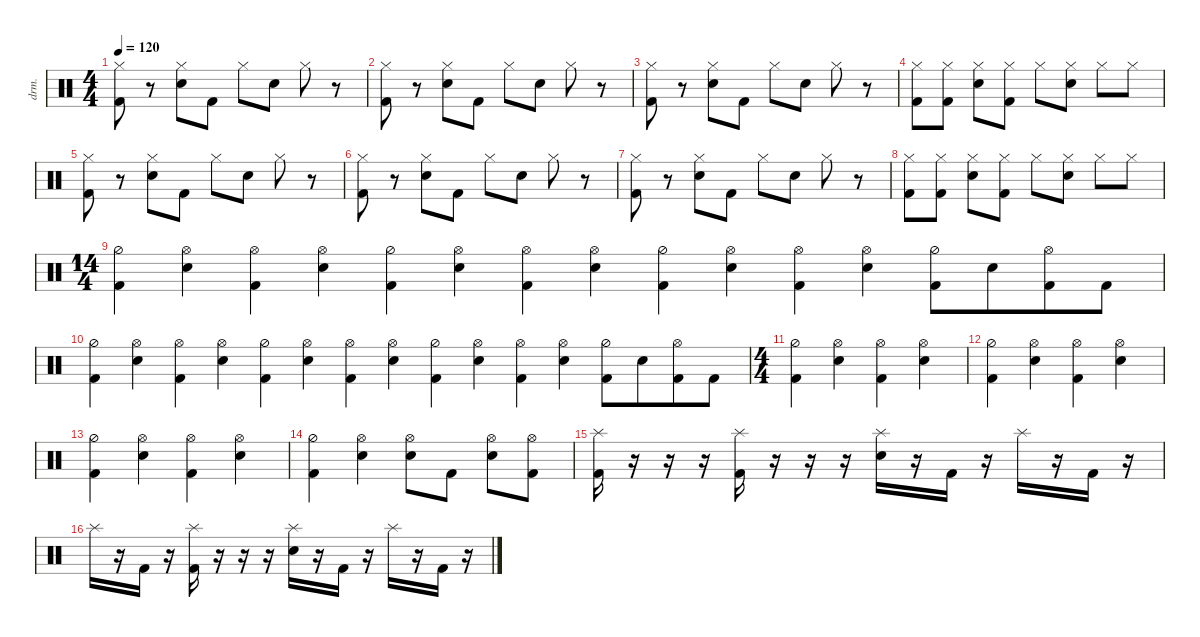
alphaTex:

\defaultSystemsLayout 4
\hideDynamics
\bracketExtendMode nobrackets
\otherSystemsTrackNameOrientation horizontal
\track ("Drumkit" "drm.") {instrument percussion}
\staff {score}
\articulation defaults
\ts (4 4)
\tempo 120
\clef neutral
\ks c
("Kick (hit) 2" "Hi-Hat (closed)").8{dy mf beam Down} r.8{beam Down} ("Hi-Hat (closed)" "Snare (hit) 2").8{beam Down} "Kick (hit) 2".8{beam Down} "Hi-Hat (closed)".8{beam Down} "Snare (hit) 2".8{beam Down} "Hi-Hat (closed)".8{beam Down} r.8{beam Down} |
("Kick (hit) 2" "Hi-Hat (closed)").8{beam Down} r.8{beam Down} ("Hi-Hat (closed)" "Snare (hit) 2").8{beam Down} "Kick (hit) 2".8{beam Down} "Hi-Hat (closed)".8{beam Down} "Snare (hit) 2".8{beam Down} "Hi-Hat (closed)".8{beam Down} r.8{beam Down} |
("Kick (hit) 2" "Hi-Hat (closed)").8{beam Down} r.8{beam Down} ("Hi-Hat (closed)" "Snare (hit) 2").8{beam Down} "Kick (hit) 2".8{beam Down} "Hi-Hat (closed)".8{beam Down} "Snare (hit) 2".8{beam Down} "Hi-Hat (closed)".8{beam Down} r.8{beam Down} |
("Hi-Hat (closed)" "Kick (hit) 2").8{beam Down} ("Hi-Hat (closed)" "Kick (hit) 2").8{beam Down} ("Hi-Hat (closed)" "Snare (hit) 2").8{beam Down} ("Hi-Hat (closed)" "Kick (hit) 2").8{beam Down} "Hi-Hat (closed)".8{beam Down} ("Hi-Hat (closed)" "Snare (hit) 2").8{beam Down} "Hi-Hat (closed)".8{beam Down} "Hi-Hat (closed)".8{beam Down} |
("Kick (hit) 2" "Hi-Hat (closed)").8{beam Down} r.8{beam Down} ("Hi-Hat (closed)" "Snare (hit) 2").8{beam Down} "Kick (hit) 2".8{beam Down} "Hi-Hat (closed)".8{beam Down} "Snare (hit) 2".8{beam Down} "Hi-Hat (closed)".8{beam Down} r.8{beam Down} |
("Kick (hit) 2" "Hi-Hat (closed)").8{beam Down} r.8{beam Down} ("Hi-Hat (closed)" "Snare (hit) 2").8{beam Down} "Kick (hit) 2".8{beam Down} "Hi-Hat (closed)".8{beam Down} "Snare (hit) 2".8{beam Down} "Hi-Hat (closed)".8{beam Down} r.8{beam Down} |
("Kick (hit) 2" "Hi-Hat (closed)").8{beam Down} r.8{beam Down} ("Hi-Hat (closed)" "Snare (hit) 2").8{beam Down} "Kick (hit) 2".8{beam Down} "Hi-Hat (closed)".8{beam Down} "Snare (hit) 2".8{beam Down} "Hi-Hat (closed)".8{beam Down} r.8{beam Down} |
("Hi-Hat (closed)" "Kick (hit) 2").8{beam Down} ("Hi-Hat (closed)" "Kick (hit) 2").8{beam Down} ("Hi-Hat (closed)" "Snare (hit) 2").8{beam Down} ("Hi-Hat (closed)" "Kick (hit) 2").8{beam Down} "Hi-Hat (closed)".8{beam Down} ("Hi-Hat (closed)" "Snare (hit) 2").8{beam Down} "Hi-Hat (closed)".8{beam Down} "Hi-Hat (closed)".8{beam Down} |
\ts (14 4)
\beaming (8 4 4 4 4 4 4 4)
("Kick (hit) 2" "Hi-Hat (half)").4{beam Down} ("Snare (hit) 2" "Hi-Hat (open)").4{beam Down} ("Kick (hit) 2" "Hi-Hat (open)").4{beam Down} ("Snare (hit) 2" "Hi-Hat (open)").4{beam Down} ("Kick (hit) 2" "Hi-Hat (half)").4{beam Down} ("Snare (hit) 2" "Hi-Hat (open)").4{beam Down} ("Kick (hit) 2" "Hi-Hat (open)").4{beam Down} ("Snare (hit) 2" "Hi-Hat (open)").4{beam Down} ("Kick (hit) 2" "Hi-Hat (half)").4{beam Down} ("Snare (hit) 2" "Hi-Hat (open)").4{beam Down} ("Kick (hit) 2" "Hi-Hat (open)").4{beam Down} ("Snare (hit) 2" "Hi-Hat (open)").4{beam Down} ("Kick (hit) 2" "Hi-Hat (half)").8{beam Down} "Snare (hit) 2".8{beam Down} ("Kick (hit) 2" "Hi-Hat (open)").8{beam Down} "Kick (hit) 2".8{beam Down} |
("Kick (hit) 2" "Hi-Hat (half)").4{beam Down} ("Snare (hit) 2" "Hi-Hat (open)").4{beam Down} ("Kick (hit) 2" "Hi-Hat (open)").4{beam Down} ("Snare (hit) 2" "Hi-Hat (open)").4{beam Down} ("Kick (hit) 2" "Hi-Hat (half)").4{beam Down} ("Snare (hit) 2" "Hi-Hat (open)").4{beam Down} ("Kick (hit) 2" "Hi-Hat (open)").4{beam Down} ("Snare (hit) 2" "Hi-Hat (open)").4{beam Down} ("Kick (hit) 2" "Hi-Hat (half)").4{beam Down} ("Snare (hit) 2" "Hi-Hat (open)").4{beam Down} ("Kick (hit) 2" "Hi-Hat (open)").4{beam Down} ("Snare (hit) 2" "Hi-Hat (open)").4{beam Down} ("Kick (hit) 2" "Hi-Hat (half)").8{beam Down} "Snare (hit) 2".8{beam Down} ("Kick (hit) 2" "Hi-Hat (open)").8{beam Down} "Kick (hit) 2".8{beam Down} |
\ts (4 4)
\beaming (8 2 2 2 2)
("Kick (hit) 2" "Hi-Hat (half)").4{beam Down} ("Snare (hit) 2" "Hi-Hat (open)").4{beam Down} ("Kick (hit) 2" "Hi-Hat (open)").4{beam Down} ("Snare (hit) 2" "Hi-Hat (open)").4{beam Down} |
("Kick (hit) 2" "Hi-Hat (half)").4{beam Down} ("Snare (hit) 2" "Hi-Hat (open)").4{beam Down} ("Kick (hit) 2" "Hi-Hat (open)").4{beam Down} ("Snare (hit) 2" "Hi-Hat (open)").4{beam Down} |
("Kick (hit) 2" "Hi-Hat (half)").4{beam Down} ("Snare (hit) 2" "Hi-Hat (open)").4{beam Down} ("Kick (hit) 2" "Hi-Hat (open)").4{beam Down} ("Snare (hit) 2" "Hi-Hat (open)").4{beam Down} |
("Hi-Hat (half)" "Kick (hit) 2").4{beam Down} ("Hi-Hat (open)" "Snare (hit) 2").4{beam Down} ("Hi-Hat (open)" "Snare (hit) 2").8{beam Down} "Kick (hit) 2".8{beam Down} ("Snare (hit) 2" "Hi-Hat (open)").8{beam Down} ("Hi-Hat (open)" "Kick (hit) 2").8{beam Down} |
("Kick (hit) 2" "Splash (hit)").16{beam Down} r.16{beam Down} r.16{beam Down} r.16{beam Down} ("Kick (hit) 2" "Splash (hit)").16{beam Down} r.16{beam Down} r.16{beam Down} r.16{beam Down} ("Snare (hit) 2" "Splash (hit)").16{beam Down} r.16{beam Down} "Kick (hit) 2".16{beam Down} r.16{beam Down} "Splash (hit)".16{beam Down} r.16{beam Down} "Kick (hit) 2".16{beam Down} r.16{beam Down} |
"Splash (hit)".16{beam Down} r.16{beam Down} "Kick (hit) 2".16{beam Down} r.16{beam Down} ("Kick (hit) 2" "Splash (hit)").16{beam Down} r.16{beam Down} r.16{beam Down} r.16{beam Down} ("Snare (hit) 2" "Splash (hit)").16{beam Down} r.16{beam Down} "Kick (hit) 2".16{beam Down} r.16{beam Down} "Splash (hit)".16{beam Down} r.16{beam Down} "Kick (hit) 2".16{beam Down} r.16{beam Down}
